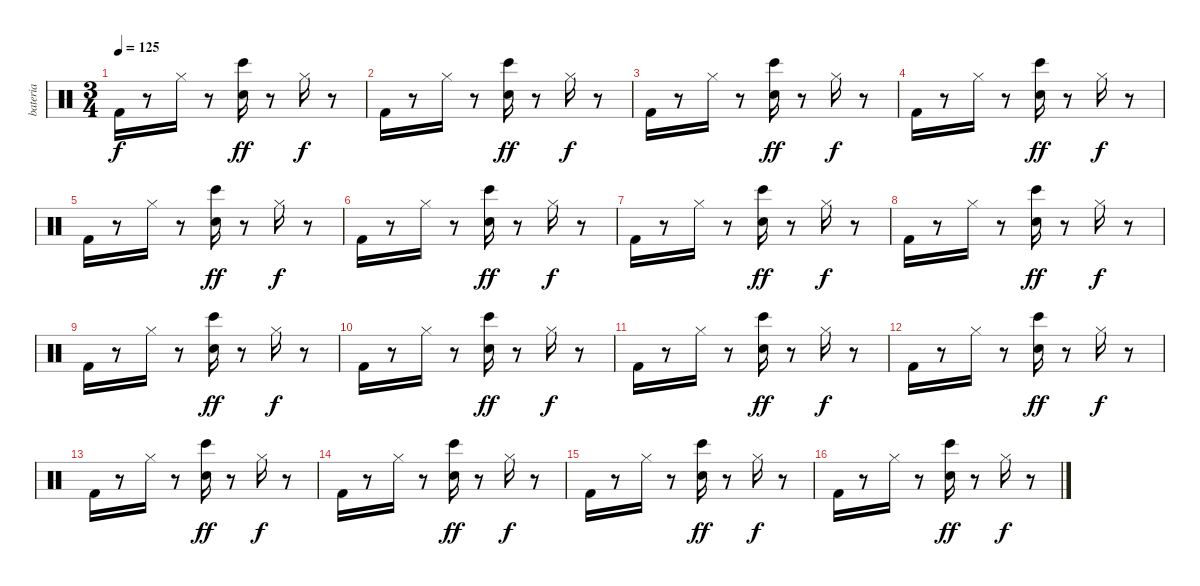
\track ("bateria" "bateria") {instrument percussion}
\staff {score}
\articulation defaults
\ts (3 4)
\tempo 125
\clef neutral
\ks c "Kick (hit) 2".16{dy f volume 15 balance 8}
r.8 "Hi-Hat (closed)".16 r.8 ("Bongo High (hit)" "Snare (hit) 2").16{dy ff} r.8 "Hi-Hat (closed)".16{dy f volume 15 balance 8} r.8 |
"Kick (hit) 2".16{volume 15 balance 8} r.8 "Hi-Hat (closed)".16 r.8 ("Bongo High (hit)" "Snare (hit) 2").16{dy ff} r.8 "Hi-Hat (closed)".16{dy f volume 15 balance 8} r.8 |
"Kick (hit) 2".16 r.8 "Hi-Hat (closed)".16 r.8 ("Snare (hit) 2" "Bongo High (hit)").16{dy ff volume 15 balance 8} r.8 "Hi-Hat (closed)".16{dy f} r.8 |
"Kick (hit) 2".16{volume 15 balance 8} r.8 "Hi-Hat (closed)".16 r.8 ("Bongo High (hit)" "Snare (hit) 2").16{dy ff} r.8 "Hi-Hat (closed)".16{dy f volume 15 balance 8} r.8 |
"Kick (hit) 2".16{volume 15 balance 8} r.8 "Hi-Hat (closed)".16 r.8 ("Bongo High (hit)" "Snare (hit) 2").16{dy ff} r.8 "Hi-Hat (closed)".16{dy f volume 15 balance 8} r.8 |
"Kick (hit) 2".16 r.8 "Hi-Hat (closed)".16 r.8 ("Snare (hit) 2" "Bongo High (hit)").16{dy ff volume 15 balance 8} r.8 "Hi-Hat (closed)".16{dy f} r.8 |
"Kick (hit) 2".16{volume 15 balance 8} r.8 "Hi-Hat (closed)".16 r.8 ("Bongo High (hit)" "Snare (hit) 2").16{dy ff} r.8 "Hi-Hat (closed)".16{dy f volume 15 balance 8} r.8 |
"Kick (hit) 2".16{volume 15 balance 8} r.8 "Hi-Hat (closed)".16 r.8 ("Bongo High (hit)" "Snare (hit) 2").16{dy ff} r.8 "Hi-Hat (closed)".16{dy f volume 15 balance 8} r.8 |
"Kick (hit) 2".16 r.8 "Hi-Hat (closed)".16 r.8 ("Snare (hit) 2" "Bongo High (hit)").16{dy ff volume 15 balance 8} r.8 "Hi-Hat (closed)".16{dy f} r.8 |
"Kick (hit) 2".16{volume 15 balance 8} r.8 "Hi-Hat (closed)".16 r.8 ("Bongo High (hit)" "Snare (hit) 2").16{dy ff} r.8 "Hi-Hat (closed)".16{dy f volume 15 balance 8} r.8 |
"Kick (hit) 2".16{volume 15 balance 8} r.8 "Hi-Hat (closed)".16 r.8 ("Bongo High (hit)" "Snare (hit) 2").16{dy ff} r.8 "Hi-Hat (closed)".16{dy f volume 15 balance 8} r.8 |
"Kick (hit) 2".16 r.8 "Hi-Hat (closed)".16 r.8 ("Snare (hit) 2" "Bongo High (hit)").16{dy ff volume 15 balance 8} r.8 "Hi-Hat (closed)".16{dy f} r.8 |
"Kick (hit) 2".16{volume 15 balance 8} r.8 "Hi-Hat (closed)".16 r.8 ("Bongo High (hit)" "Snare (hit) 2").16{dy ff} r.8 "Hi-Hat (closed)".16{dy f volume 15 balance 8} r.8 |
"Kick (hit) 2".16{volume 15 balance 8} r.8 "Hi-Hat (closed)".16 r.8 ("Bongo High (hit)" "Snare (hit) 2").16{dy ff} r.8 "Hi-Hat (closed)".16{dy f volume 15 balance 8} r.8 |
"Kick (hit) 2".16 r.8 "Hi-Hat (closed)".16 r.8 ("Snare (hit) 2" "Bongo High (hit)").16{dy ff volume 15 balance 8} r.8 "Hi-Hat (closed)".16{dy f} r.8 |
"Kick (hit) 2".16{volume 15 balance 8} r.8 "Hi-Hat (closed)".16 r.8 ("Bongo High (hit)" "Snare (hit) 2").16{dy ff} r.8 "Hi-Hat (closed)".16{dy f volume 15 balance 8} r.8
